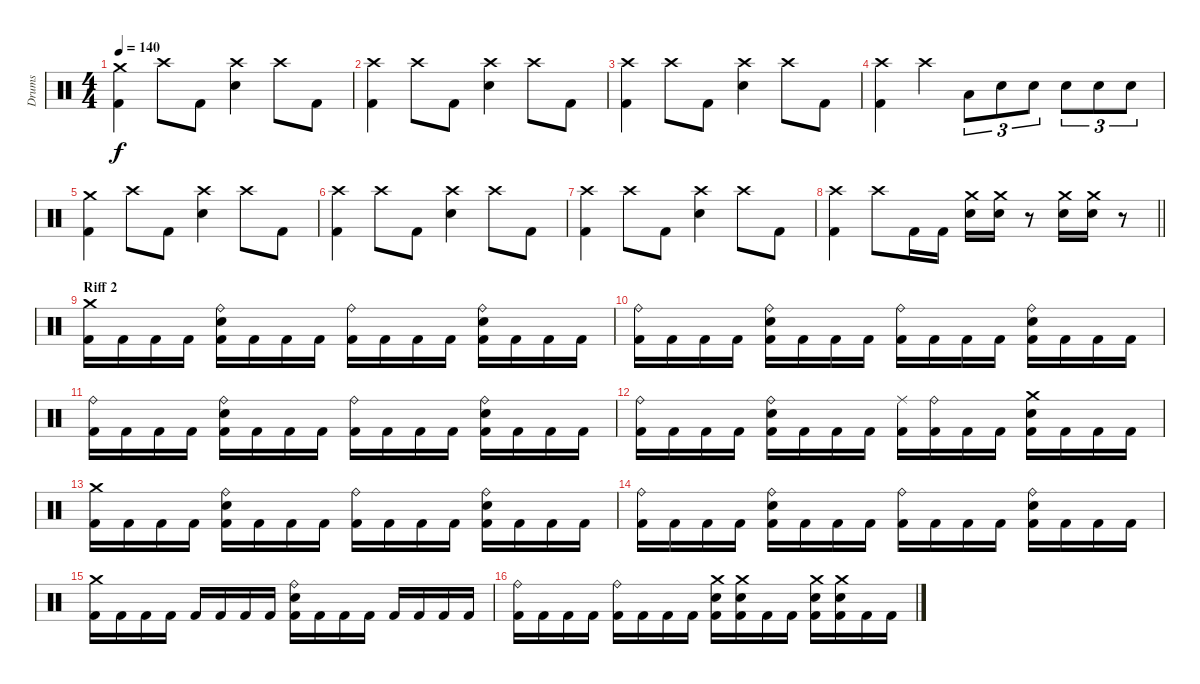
\track ("Drums" "Drums") {instrument percussion}
\staff {score}
\articulation defaults
\ts (4 4)
\tempo 140
\clef neutral
\ks c
("Crash medium (hit)" "Kick (hit) 2").4{dy f} "Crash high (hit)".8 "Kick (hit) 2".8 ("Electric Snare (hit)" "Crash high (hit)").4 "Crash high (hit)".8 "Kick (hit) 2".8 |
("Crash high (hit)" "Kick (hit) 2").4 "Crash high (hit)".8 "Kick (hit) 2".8 ("Electric Snare (hit)" "Crash high (hit)").4 "Crash high (hit)".8 "Kick (hit) 2".8 |
("Crash high (hit)" "Kick (hit) 2").4 "Crash high (hit)".8 "Kick (hit) 2".8 ("Electric Snare (hit)" "Crash high (hit)").4 "Crash high (hit)".8 "Kick (hit) 2".8 |
("Crash high (hit)" "Kick (hit) 2").4 "Crash high (hit)".4 "Low Tom (hit)".8{tu (3 2)} "Electric Snare (hit)".8{tu (3 2)} "Electric Snare (hit)".8{tu (3 2)} "Electric Snare (hit)".8{tu (3 2)} "Electric Snare (hit)".8{tu (3 2)} "Electric Snare (hit)".8{tu (3 2)} |
("Crash medium (hit)" "Kick (hit) 2").4 "Crash high (hit)".8 "Kick (hit) 2".8 ("Electric Snare (hit)" "Crash high (hit)").4 "Crash high (hit)".8 "Kick (hit) 2".8 |
("Crash high (hit)" "Kick (hit) 2").4 "Crash high (hit)".8 "Kick (hit) 2".8 ("Electric Snare (hit)" "Crash high (hit)").4 "Crash high (hit)".8 "Kick (hit) 2".8 |
("Crash high (hit)" "Kick (hit) 2").4 "Crash high (hit)".8 "Kick (hit) 2".8 ("Electric Snare (hit)" "Crash high (hit)").4 "Crash high (hit)".8 "Kick (hit) 2".8 |
\barLineRight lightlight
("Crash high (hit)" "Kick (hit) 2").4 "Crash high (hit)".8 "Kick (hit) 2".16 "Kick (hit) 2".16 ("Electric Snare (hit)" "Crash medium (hit)").16 ("Electric Snare (hit)" "Crash medium (hit)").16 r.8 ("Electric Snare (hit)" "Crash medium (hit)").16 ("Electric Snare (hit)" "Crash medium (hit)").16 r.8 |
\section ("" "Riff 2")
("Crash medium (hit)" "Kick (hit) 2").16 "Kick (hit) 2".16 "Kick (hit) 2".16 "Kick (hit) 2".16 ("Electric Snare (hit)" "Ride (bell)" "Kick (hit) 2").16 "Kick (hit) 2".16 "Kick (hit) 2".16 "Kick (hit) 2".16 ("Ride (bell)" "Kick (hit) 2").16 "Kick (hit) 2".16 "Kick (hit) 2".16 "Kick (hit) 2".16 ("Kick (hit) 2" "Electric Snare (hit)" "Ride (bell)").16 "Kick (hit) 2".16 "Kick (hit) 2".16 "Kick (hit) 2".16 |
("Ride (bell)" "Kick (hit) 2").16 "Kick (hit) 2".16 "Kick (hit) 2".16 "Kick (hit) 2".16 ("Ride (bell)" "Electric Snare (hit)" "Kick (hit) 2").16 "Kick (hit) 2".16 "Kick (hit) 2".16 "Kick (hit) 2".16 ("Ride (bell)" "Kick (hit) 2").16 "Kick (hit) 2".16 "Kick (hit) 2".16 "Kick (hit) 2".16 ("Kick (hit) 2" "Ride (bell)" "Electric Snare (hit)").16 "Kick (hit) 2".16 "Kick (hit) 2".16 "Kick (hit) 2".16 |
("Ride (bell)" "Kick (hit) 2").16 "Kick (hit) 2".16 "Kick (hit) 2".16 "Kick (hit) 2".16 ("Ride (bell)" "Electric Snare (hit)" "Kick (hit) 2").16 "Kick (hit) 2".16 "Kick (hit) 2".16 "Kick (hit) 2".16 ("Ride (bell)" "Kick (hit) 2").16 "Kick (hit) 2".16 "Kick (hit) 2".16 "Kick (hit) 2".16 ("Kick (hit) 2" "Ride (bell)" "Electric Snare (hit)").16 "Kick (hit) 2".16 "Kick (hit) 2".16 "Kick (hit) 2".16 |
("Ride (bell)" "Kick (hit) 2").16 "Kick (hit) 2".16 "Kick (hit) 2".16 "Kick (hit) 2".16 ("Ride (bell)" "Electric Snare (hit)" "Kick (hit) 2").16 "Kick (hit) 2".16 "Kick (hit) 2".16 "Kick (hit) 2".16 ("Ride (middle)" "Kick (hit) 2").16 ("Ride (bell)" "Kick (hit) 2").16 "Kick (hit) 2".16 "Kick (hit) 2".16 ("Kick (hit) 2" "Crash medium (hit)" "Electric Snare (hit)").16 "Kick (hit) 2".16 "Kick (hit) 2".16 "Kick (hit) 2".16 |
("Crash medium (hit)" "Kick (hit) 2").16 "Kick (hit) 2".16 "Kick (hit) 2".16 "Kick (hit) 2".16 ("Electric Snare (hit)" "Ride (bell)" "Kick (hit) 2").16 "Kick (hit) 2".16 "Kick (hit) 2".16 "Kick (hit) 2".16 ("Ride (bell)" "Kick (hit) 2").16 "Kick (hit) 2".16 "Kick (hit) 2".16 "Kick (hit) 2".16 ("Kick (hit) 2" "Electric Snare (hit)" "Ride (bell)").16 "Kick (hit) 2".16 "Kick (hit) 2".16 "Kick (hit) 2".16 |
("Ride (bell)" "Kick (hit) 2").16 "Kick (hit) 2".16 "Kick (hit) 2".16 "Kick (hit) 2".16 ("Ride (bell)" "Electric Snare (hit)" "Kick (hit) 2").16 "Kick (hit) 2".16 "Kick (hit) 2".16 "Kick (hit) 2".16 ("Ride (bell)" "Kick (hit) 2").16 "Kick (hit) 2".16 "Kick (hit) 2".16 "Kick (hit) 2".16 ("Kick (hit) 2" "Ride (bell)" "Electric Snare (hit)").16 "Kick (hit) 2".16 "Kick (hit) 2".16 "Kick (hit) 2".16 |
("Crash medium (hit)" "Kick (hit) 2").16 "Kick (hit) 2".16 "Kick (hit) 2".16 "Kick (hit) 2".16 "Kick (hit) 2".16 "Kick (hit) 2".16 "Kick (hit) 2".16 "Kick (hit) 2".16 ("Electric Snare (hit)" "Ride (bell)" "Kick (hit) 2").16 "Kick (hit) 2".16 "Kick (hit) 2".16 "Kick (hit) 2".16 "Kick (hit) 2".16 "Kick (hit) 2".16 "Kick (hit) 2".16 "Kick (hit) 2".16 |
("Ride (bell)" "Kick (hit) 2").16 "Kick (hit) 2".16 "Kick (hit) 2".16 "Kick (hit) 2".16 ("Ride (bell)" "Kick (hit) 2").16 "Kick (hit) 2".16 "Kick (hit) 2".16 "Kick (hit) 2".16 ("Electric Snare (hit)" "Crash medium (hit)" "Kick (hit) 2").16 ("Electric Snare (hit)" "Crash medium (hit)" "Kick (hit) 2").16 "Kick (hit) 2".16 "Kick (hit) 2".16 ("Electric Snare (hit)" "Crash medium (hit)" "Kick (hit) 2").16 ("Electric Snare (hit)" "Crash medium (hit)" "Kick (hit) 2").16 "Kick (hit) 2".16 "Kick (hit) 2".16
